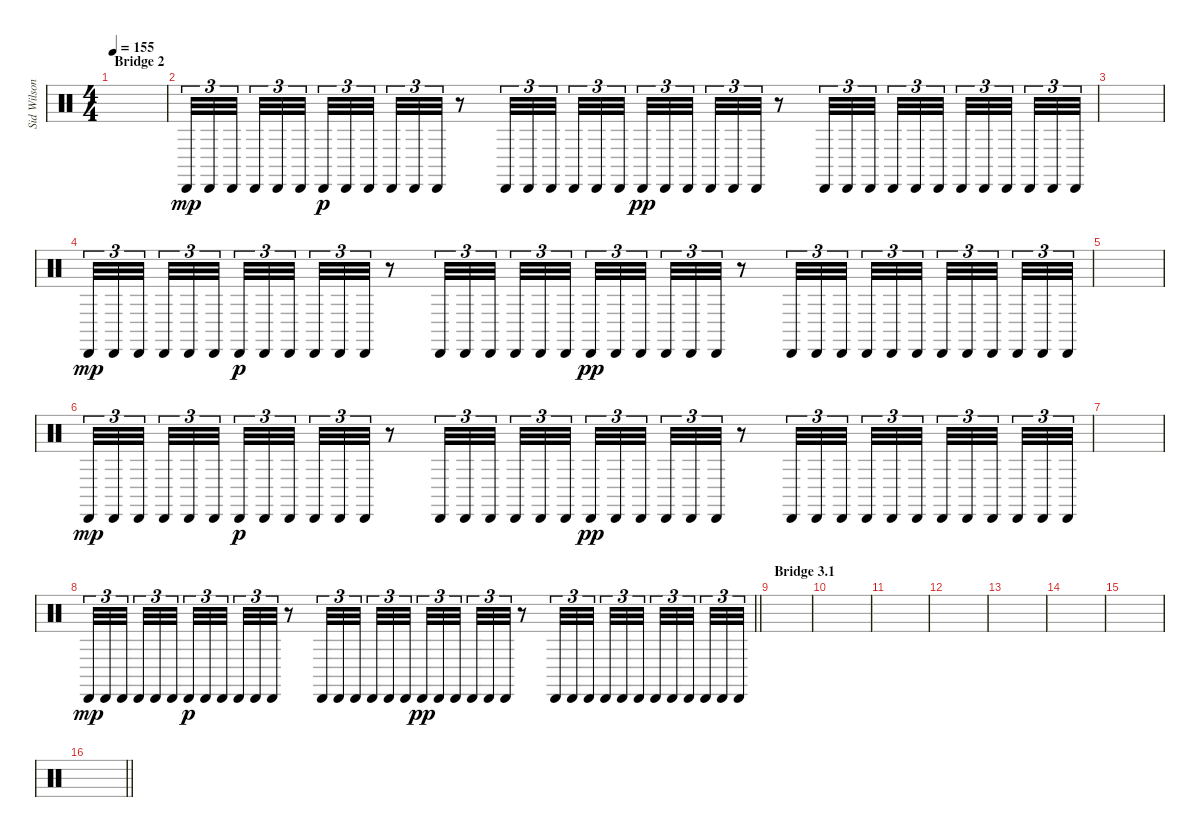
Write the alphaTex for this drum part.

\track ("Sid Wilson" "Sid Wilson") {instrument percussion}
\staff {score}
\articulation defaults
\ts (4 4)
\section ("" "Bridge 2")
\tempo 155
\clef neutral
\ks c
|
"Cabasa (hit)".32{tu (3 2) dy mp} "Cabasa (hit)".32{tu (3 2)} "Cabasa (hit)".32{tu (3 2) beam splitsecondary} "Cabasa (hit)".32{tu (3 2)} "Cabasa (hit)".32{tu (3 2)} "Cabasa (hit)".32{tu (3 2) beam splitsecondary} "Cabasa (hit)".32{tu (3 2) dy p} "Cabasa (hit)".32{tu (3 2)} "Cabasa (hit)".32{tu (3 2) beam splitsecondary} "Cabasa (hit)".32{tu (3 2)} "Cabasa (hit)".32{tu (3 2)} "Cabasa (hit)".32{tu (3 2)} r.8 "Cabasa (hit)".32{tu (3 2)} "Cabasa (hit)".32{tu (3 2)} "Cabasa (hit)".32{tu (3 2) beam splitsecondary} "Cabasa (hit)".32{tu (3 2)} "Cabasa (hit)".32{tu (3 2)} "Cabasa (hit)".32{tu (3 2)} "Cabasa (hit)".32{tu (3 2) dy pp} "Cabasa (hit)".32{tu (3 2)} "Cabasa (hit)".32{tu (3 2) beam splitsecondary} "Cabasa (hit)".32{tu (3 2)} "Cabasa (hit)".32{tu (3 2)} "Cabasa (hit)".32{tu (3 2)} r.8 "Cabasa (hit)".32{tu (3 2)} "Cabasa (hit)".32{tu (3 2)} "Cabasa (hit)".32{tu (3 2) beam splitsecondary} "Cabasa (hit)".32{tu (3 2)} "Cabasa (hit)".32{tu (3 2)} "Cabasa (hit)".32{tu (3 2) beam splitsecondary} "Cabasa (hit)".32{tu (3 2)} "Cabasa (hit)".32{tu (3 2)} "Cabasa (hit)".32{tu (3 2) beam splitsecondary} "Cabasa (hit)".32{tu (3 2)} "Cabasa (hit)".32{tu (3 2)} "Cabasa (hit)".32{tu (3 2)} |
|
"Cabasa (hit)".32{tu (3 2) dy mp} "Cabasa (hit)".32{tu (3 2)} "Cabasa (hit)".32{tu (3 2) beam splitsecondary} "Cabasa (hit)".32{tu (3 2)} "Cabasa (hit)".32{tu (3 2)} "Cabasa (hit)".32{tu (3 2) beam splitsecondary} "Cabasa (hit)".32{tu (3 2) dy p} "Cabasa (hit)".32{tu (3 2)} "Cabasa (hit)".32{tu (3 2) beam splitsecondary} "Cabasa (hit)".32{tu (3 2)} "Cabasa (hit)".32{tu (3 2)} "Cabasa (hit)".32{tu (3 2)} r.8 "Cabasa (hit)".32{tu (3 2)} "Cabasa (hit)".32{tu (3 2)} "Cabasa (hit)".32{tu (3 2) beam splitsecondary} "Cabasa (hit)".32{tu (3 2)} "Cabasa (hit)".32{tu (3 2)} "Cabasa (hit)".32{tu (3 2)} "Cabasa (hit)".32{tu (3 2) dy pp} "Cabasa (hit)".32{tu (3 2)} "Cabasa (hit)".32{tu (3 2) beam splitsecondary} "Cabasa (hit)".32{tu (3 2)} "Cabasa (hit)".32{tu (3 2)} "Cabasa (hit)".32{tu (3 2)} r.8 "Cabasa (hit)".32{tu (3 2)} "Cabasa (hit)".32{tu (3 2)} "Cabasa (hit)".32{tu (3 2) beam splitsecondary} "Cabasa (hit)".32{tu (3 2)} "Cabasa (hit)".32{tu (3 2)} "Cabasa (hit)".32{tu (3 2) beam splitsecondary} "Cabasa (hit)".32{tu (3 2)} "Cabasa (hit)".32{tu (3 2)} "Cabasa (hit)".32{tu (3 2) beam splitsecondary} "Cabasa (hit)".32{tu (3 2)} "Cabasa (hit)".32{tu (3 2)} "Cabasa (hit)".32{tu (3 2)} |
|
"Cabasa (hit)".32{tu (3 2) dy mp} "Cabasa (hit)".32{tu (3 2)} "Cabasa (hit)".32{tu (3 2) beam splitsecondary} "Cabasa (hit)".32{tu (3 2)} "Cabasa (hit)".32{tu (3 2)} "Cabasa (hit)".32{tu (3 2) beam splitsecondary} "Cabasa (hit)".32{tu (3 2) dy p} "Cabasa (hit)".32{tu (3 2)} "Cabasa (hit)".32{tu (3 2) beam splitsecondary} "Cabasa (hit)".32{tu (3 2)} "Cabasa (hit)".32{tu (3 2)} "Cabasa (hit)".32{tu (3 2)} r.8 "Cabasa (hit)".32{tu (3 2)} "Cabasa (hit)".32{tu (3 2)} "Cabasa (hit)".32{tu (3 2) beam splitsecondary} "Cabasa (hit)".32{tu (3 2)} "Cabasa (hit)".32{tu (3 2)} "Cabasa (hit)".32{tu (3 2)} "Cabasa (hit)".32{tu (3 2) dy pp} "Cabasa (hit)".32{tu (3 2)} "Cabasa (hit)".32{tu (3 2) beam splitsecondary} "Cabasa (hit)".32{tu (3 2)} "Cabasa (hit)".32{tu (3 2)} "Cabasa (hit)".32{tu (3 2)} r.8 "Cabasa (hit)".32{tu (3 2)} "Cabasa (hit)".32{tu (3 2)} "Cabasa (hit)".32{tu (3 2) beam splitsecondary} "Cabasa (hit)".32{tu (3 2)} "Cabasa (hit)".32{tu (3 2)} "Cabasa (hit)".32{tu (3 2) beam splitsecondary} "Cabasa (hit)".32{tu (3 2)} "Cabasa (hit)".32{tu (3 2)} "Cabasa (hit)".32{tu (3 2) beam splitsecondary} "Cabasa (hit)".32{tu (3 2)} "Cabasa (hit)".32{tu (3 2)} "Cabasa (hit)".32{tu (3 2)} |
|
\barLineRight lightlight "Cabasa (hit)".32{tu (3 2) dy mp} "Cabasa (hit)".32{tu (3 2)} "Cabasa (hit)".32{tu (3 2) beam splitsecondary} "Cabasa (hit)".32{tu (3 2)} "Cabasa (hit)".32{tu (3 2)} "Cabasa (hit)".32{tu (3 2) beam splitsecondary} "Cabasa (hit)".32{tu (3 2) dy p} "Cabasa (hit)".32{tu (3 2)} "Cabasa (hit)".32{tu (3 2) beam splitsecondary} "Cabasa (hit)".32{tu (3 2)} "Cabasa (hit)".32{tu (3 2)} "Cabasa (hit)".32{tu (3 2)}
r.8 "Cabasa (hit)".32{tu (3 2)} "Cabasa (hit)".32{tu (3 2)} "Cabasa (hit)".32{tu (3 2) beam splitsecondary} "Cabasa (hit)".32{tu (3 2)} "Cabasa (hit)".32{tu (3 2)} "Cabasa (hit)".32{tu (3 2)} "Cabasa (hit)".32{tu (3 2) dy pp} "Cabasa (hit)".32{tu (3 2)} "Cabasa (hit)".32{tu (3 2) beam splitsecondary} "Cabasa (hit)".32{tu (3 2)} "Cabasa (hit)".32{tu (3 2)} "Cabasa (hit)".32{tu (3 2)} r.8 "Cabasa (hit)".32{tu (3 2)} "Cabasa (hit)".32{tu (3 2)} "Cabasa (hit)".32{tu (3 2) beam splitsecondary} "Cabasa (hit)".32{tu (3 2)} "Cabasa (hit)".32{tu (3 2)} "Cabasa (hit)".32{tu (3 2) beam splitsecondary} "Cabasa (hit)".32{tu (3 2)} "Cabasa (hit)".32{tu (3 2)} "Cabasa (hit)".32{tu (3 2) beam splitsecondary} "Cabasa (hit)".32{tu (3 2)} "Cabasa (hit)".32{tu (3 2)} "Cabasa (hit)".32{tu (3 2)} |
\section ("" "Bridge 3.1")
|
|
|
|
|
|
|
\barLineRight lightlight
